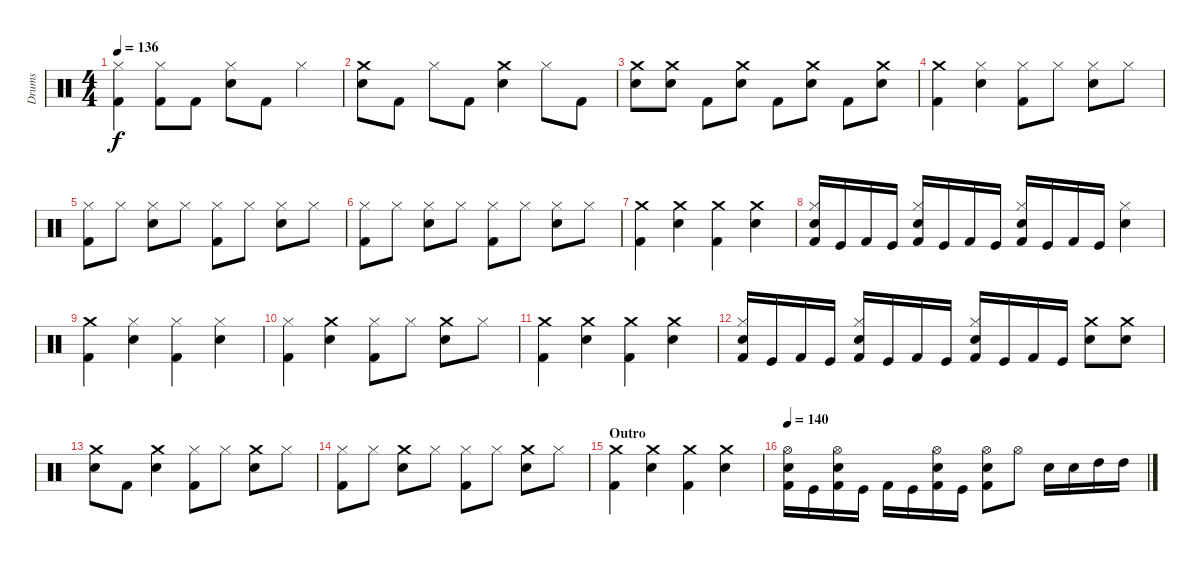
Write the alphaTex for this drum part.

\track ("Drums" "Drums") {instrument percussion}
\staff {score}
\articulation defaults
\ts (4 4)
\tempo 136
\clef neutral
\ks c
("Kick (hit) 2" "Hi-Hat (closed)").4{dy f} ("Kick (hit) 2" "Hi-Hat (closed)").8 "Kick (hit) 2".8 ("Snare (hit) 2" "Hi-Hat (closed)").8 "Kick (hit) 2".8 "Hi-Hat (closed)".4 |
("Crash medium (hit)" "Snare (hit) 2").8 "Kick (hit) 2".8 "Hi-Hat (closed)".8 "Kick (hit) 2".8 ("Crash medium (hit)" "Snare (hit) 2").4 "Hi-Hat (closed)".8 "Kick (hit) 2".8 |
("Crash medium (hit)" "Snare (hit) 2").8 ("Crash medium (hit)" "Snare (hit) 2").8 "Kick (hit) 2".8 ("Crash medium (hit)" "Snare (hit) 2").8 "Kick (hit) 2".8 ("Snare (hit) 2" "Crash medium (hit)").8 "Kick (hit) 2".8 ("Snare (hit) 2" "Crash medium (hit)").8 |
("Kick (hit) 2" "Crash medium (hit)").4 ("Hi-Hat (closed)" "Snare (hit) 2").4 ("Hi-Hat (closed)" "Kick (hit) 2").8 "Hi-Hat (closed)".8 ("Snare (hit) 2" "Hi-Hat (closed)").8 "Hi-Hat (closed)".8 |
("Hi-Hat (closed)" "Kick (hit) 2").8 "Hi-Hat (closed)".8 ("Snare (hit) 2" "Hi-Hat (closed)").8 "Hi-Hat (closed)".8 ("Hi-Hat (closed)" "Kick (hit) 2").8 "Hi-Hat (closed)".8 ("Snare (hit) 2" "Hi-Hat (closed)").8 "Hi-Hat (closed)".8 |
("Hi-Hat (closed)" "Kick (hit) 2").8 "Hi-Hat (closed)".8 ("Snare (hit) 2" "Hi-Hat (closed)").8 "Hi-Hat (closed)".8 ("Hi-Hat (closed)" "Kick (hit) 2").8 "Hi-Hat (closed)".8 ("Snare (hit) 2" "Hi-Hat (closed)").8 "Hi-Hat (closed)".8 |
("Kick (hit) 2" "Crash medium (hit)").4 ("Snare (hit) 2" "Crash medium (hit)").4 ("Kick (hit) 2" "Crash medium (hit)").4 ("Snare (hit) 2" "Crash medium (hit)").4 |
("Kick (hit) 2" "Snare (hit) 2" "Hi-Hat (closed)").16 "Kick (hit)".16 "Kick (hit) 2".16 "Kick (hit)".16 ("Kick (hit) 2" "Snare (hit) 2" "Hi-Hat (closed)").16 "Kick (hit)".16 "Kick (hit) 2".16 "Kick (hit)".16 ("Kick (hit) 2" "Snare (hit) 2" "Hi-Hat (closed)").16 "Kick (hit)".16 "Kick (hit) 2".16 "Kick (hit)".16 ("Snare (hit) 2" "Hi-Hat (closed)").4 |
("Kick (hit) 2" "Crash medium (hit)").4 ("Hi-Hat (closed)" "Snare (hit) 2").4 ("Hi-Hat (closed)" "Kick (hit) 2").4 ("Snare (hit) 2" "Hi-Hat (closed)").4 |
("Kick (hit) 2" "Hi-Hat (closed)").4 ("Crash medium (hit)" "Snare (hit) 2").4 ("Hi-Hat (closed)" "Kick (hit) 2").8 "Hi-Hat (closed)".8 ("Crash medium (hit)" "Snare (hit) 2").8 "Hi-Hat (closed)".8 |
("Kick (hit) 2" "Crash medium (hit)").4 ("Snare (hit) 2" "Crash medium (hit)").4 ("Kick (hit) 2" "Crash medium (hit)").4 ("Snare (hit) 2" "Crash medium (hit)").4 |
("Kick (hit) 2" "Snare (hit) 2" "Hi-Hat (closed)").16 "Kick (hit)".16 "Kick (hit) 2".16 "Kick (hit)".16 ("Kick (hit) 2" "Snare (hit) 2" "Hi-Hat (closed)").16 "Kick (hit)".16 "Kick (hit) 2".16 "Kick (hit)".16 ("Kick (hit) 2" "Snare (hit) 2" "Hi-Hat (closed)").16 "Kick (hit)".16 "Kick (hit) 2".16 "Kick (hit)".16 ("Snare (hit) 2" "Crash medium (hit)").8 ("Snare (hit) 2" "Crash medium (hit)").8 |
("Crash medium (hit)" "Snare (hit) 2").8 "Kick (hit) 2".8 ("Crash medium (hit)" "Snare (hit) 2").4 ("Kick (hit) 2" "Hi-Hat (closed)").8 "Hi-Hat (closed)".8 ("Snare (hit) 2" "Crash medium (hit)").8 "Hi-Hat (closed)".8 |
("Hi-Hat (closed)" "Kick (hit) 2").8 "Hi-Hat (closed)".8 ("Crash medium (hit)" "Snare (hit) 2").8 "Hi-Hat (closed)".8 ("Hi-Hat (closed)" "Kick (hit) 2").8 "Hi-Hat (closed)".8 ("Crash medium (hit)" "Snare (hit) 2").8 "Hi-Hat (closed)".8 |
\section ("" "Outro")
("Crash medium (hit)" "Kick (hit) 2").4 ("Crash medium (hit)" "Snare (hit) 2").4 ("Crash medium (hit)" "Kick (hit) 2").4 ("Snare (hit) 2" "Crash medium (hit)").4 |
\tempo 140
("Hi-Hat (open)" "Snare (hit) 2" "Kick (hit) 2").16 "Kick (hit)".16 ("Hi-Hat (open)" "Snare (hit) 2" "Kick (hit) 2").16 "Kick (hit)".16 "Kick (hit) 2".16 "Kick (hit)".16 ("Hi-Hat (open)" "Snare (hit) 2" "Kick (hit) 2").16 "Kick (hit)".16 ("Hi-Hat (open)" "Snare (hit) 2" "Kick (hit) 2").8 "Hi-Hat (open)".8 "Snare (hit) 2".16 "Snare (hit) 2".16 "High Tom (hit)".16 "High Tom (hit)".16
